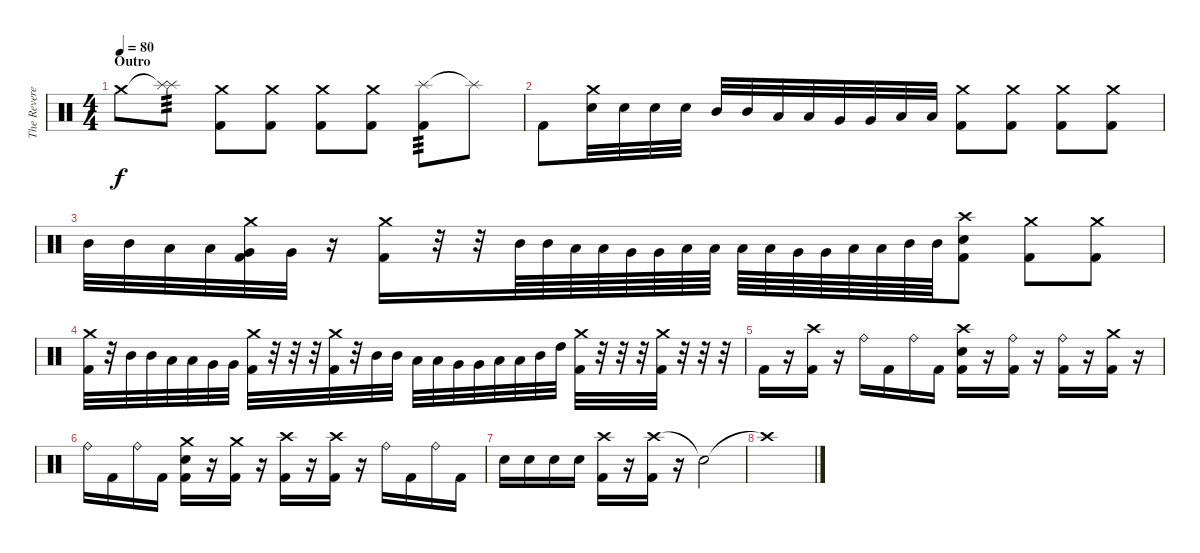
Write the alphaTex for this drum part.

\track ("The Reverend" "The Revere") {instrument percussion}
\staff {score}
\articulation defaults
\ts (4 4)
\section ("" "Outro")
\tempo 80
\clef neutral
\ks c "Crash medium (hit)".8{dy f volume 13}
("Splash (hit)"{t} "Splash (hit)").8{tp 3} ("Crash medium (hit)" "Kick (hit) 2").8 ("Crash medium (hit)" "Kick (hit) 2").8 ("Crash medium (hit)" "Kick (hit) 2").8 ("Crash medium (hit)" "Kick (hit) 2").8 ("Splash (hit)" "Kick (hit) 2").8{tp 3} "Splash (hit)"{t}.8 |
"Kick (hit) 2".8 ("Crash medium (hit)" "Electric Snare (hit)").32 "Electric Snare (hit)".32 "Electric Snare (hit)".32 "Electric Snare (hit)".32 "Mid Tom (hit)".32 "Mid Tom (hit)".32 "Low Tom (hit)".32 "Low Tom (hit)".32 "Very Low Tom (hit)".32 "Very Low Tom (hit)".32 "Low Floor Tom (hit)".32 "Low Floor Tom (hit)".32 ("Crash medium (hit)" "Kick (hit) 2").8 ("Crash medium (hit)" "Kick (hit) 2").8 ("Crash medium (hit)" "Kick (hit) 2").8 ("Crash medium (hit)" "Kick (hit) 2").8 |
"Mid Tom (hit)".32 "Mid Tom (hit)".32 "Low Tom (hit)".32 "Low Tom (hit)".32 ("Crash medium (hit)" "Very Low Tom (hit)" "Kick (hit) 2").32 "Very Low Tom (hit)".32 r.16 ("Crash medium (hit)" "Kick (hit) 2").16 r.32 r.32 "Mid Tom (hit)".64 "Mid Tom (hit)".64 "Low Tom (hit)".64 "Low Tom (hit)".64 "Very Low Tom (hit)".64 "Very Low Tom (hit)".64 "Low Floor Tom (hit)".64 "Low Floor Tom (hit)".64 "Low Floor Tom (hit)".64 "Low Floor Tom (hit)".64 "Very Low Tom (hit)".64 "Very Low Tom (hit)".64 "Low Tom (hit)".64 "Low Tom (hit)".64 "Mid Tom (hit)".64 "Mid Tom (hit)".64 ("Crash high (hit)" "Electric Snare (hit)" "Kick (hit) 2").8 ("Crash medium (hit)" "Kick (hit) 2").8 ("Crash medium (hit)" "Kick (hit) 2").8 |
("Crash medium (hit)" "Kick (hit) 2").32 r.32 "Mid Tom (hit)".32 "Mid Tom (hit)".32 "Low Tom (hit)".32 "Low Tom (hit)".32 "Very Low Tom (hit)".32 "Very Low Tom (hit)".32 ("Crash medium (hit)" "Kick (hit) 2").32 r.32 r.32 r.32 ("Crash medium (hit)" "Kick (hit) 2").32 r.32 "Mid Tom (hit)".32 "Mid Tom (hit)".32 "Low Tom (hit)".32 "Low Tom (hit)".32 "Very Low Tom (hit)".32 "Very Low Tom (hit)".32 "Low Tom (hit)".32 "Low Tom (hit)".32 "Mid Tom (hit)".32 "High Tom (hit)".32 ("Crash medium (hit)" "Kick (hit) 2").32 r.32 r.32 r.32 ("Crash medium (hit)" "Kick (hit) 2").32 r.32 r.32 r.32 |
"Kick (hit) 2".16 r.16 ("Crash high (hit)" "Kick (hit) 2").16 r.16 "Ride (bell)".16 "Kick (hit) 2".16 "Ride (bell)".16 "Kick (hit) 2".16 ("Crash high (hit)" "Electric Snare (hit)" "Kick (hit) 2").16 r.16 ("Ride (bell)" "Kick (hit) 2").16 r.16 ("Ride (bell)" "Kick (hit) 2").16 r.16 ("Crash medium (hit)" "Kick (hit) 2").16 r.16 |
"Ride (bell)".16 "Kick (hit) 2".16 "Ride (bell)".16 "Kick (hit) 2".16 ("Crash medium (hit)" "Electric Snare (hit)" "Kick (hit) 2").16 r.16 ("Crash medium (hit)" "Kick (hit) 2").16 r.16 ("Crash high (hit)" "Kick (hit) 2").16 r.16 ("Crash high (hit)" "Kick (hit) 2").16 r.16 "Ride (bell)".16 "Kick (hit) 2".16 "Ride (bell)".16 "Kick (hit) 2".16 |
"Electric Snare (hit)".16 "Electric Snare (hit)".16 "Electric Snare (hit)".16 "Electric Snare (hit)".16 ("Crash high (hit)" "Kick (hit) 2").16 r.16 ("Crash high (hit)" "Kick (hit) 2").16 r.16 "Snare (hit)"{t}.2 |
"Crash high (hit)"{t}.1
